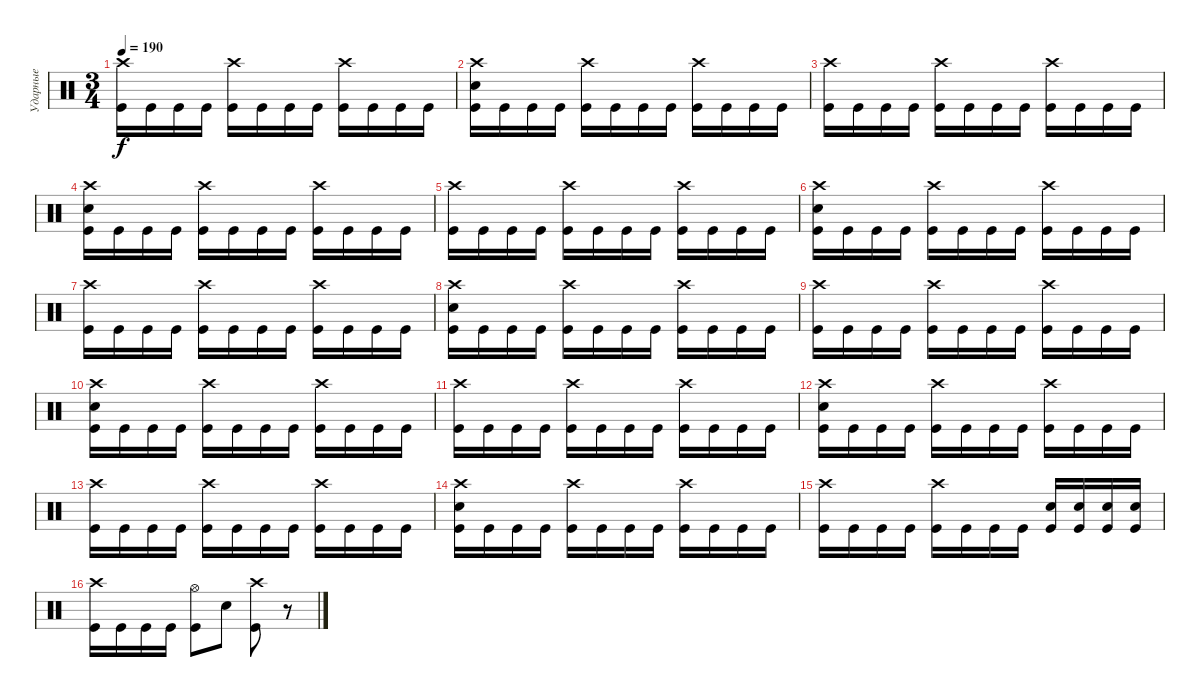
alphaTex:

\track ("Ударные" "Ударные") {instrument percussion}
\staff {score}
\articulation defaults
\ts (3 4)
\tempo 190
\clef neutral
\ks c
("Crash high (hit)" "Kick (hit)").16{dy f} "Kick (hit)".16 "Kick (hit)".16 "Kick (hit)".16 ("Crash high (hit)" "Kick (hit)").16 "Kick (hit)".16 "Kick (hit)".16 "Kick (hit)".16 ("Crash high (hit)" "Kick (hit)").16 "Kick (hit)".16 "Kick (hit)".16 "Kick (hit)".16 |
("Crash high (hit)" "Kick (hit)" "Snare (hit) 2").16 "Kick (hit)".16 "Kick (hit)".16 "Kick (hit)".16 ("Crash high (hit)" "Kick (hit)").16 "Kick (hit)".16 "Kick (hit)".16 "Kick (hit)".16 ("Crash high (hit)" "Kick (hit)").16 "Kick (hit)".16 "Kick (hit)".16 "Kick (hit)".16 |
("Crash high (hit)" "Kick (hit)").16 "Kick (hit)".16 "Kick (hit)".16 "Kick (hit)".16 ("Crash high (hit)" "Kick (hit)").16 "Kick (hit)".16 "Kick (hit)".16 "Kick (hit)".16 ("Crash high (hit)" "Kick (hit)").16 "Kick (hit)".16 "Kick (hit)".16 "Kick (hit)".16 |
("Crash high (hit)" "Kick (hit)" "Snare (hit) 2").16 "Kick (hit)".16 "Kick (hit)".16 "Kick (hit)".16 ("Crash high (hit)" "Kick (hit)").16 "Kick (hit)".16 "Kick (hit)".16 "Kick (hit)".16 ("Crash high (hit)" "Kick (hit)").16 "Kick (hit)".16 "Kick (hit)".16 "Kick (hit)".16 |
("Crash high (hit)" "Kick (hit)").16 "Kick (hit)".16 "Kick (hit)".16 "Kick (hit)".16 ("Crash high (hit)" "Kick (hit)").16 "Kick (hit)".16 "Kick (hit)".16 "Kick (hit)".16 ("Crash high (hit)" "Kick (hit)").16 "Kick (hit)".16 "Kick (hit)".16 "Kick (hit)".16 |
("Crash high (hit)" "Kick (hit)" "Snare (hit) 2").16 "Kick (hit)".16 "Kick (hit)".16 "Kick (hit)".16 ("Crash high (hit)" "Kick (hit)").16 "Kick (hit)".16 "Kick (hit)".16 "Kick (hit)".16 ("Crash high (hit)" "Kick (hit)").16 "Kick (hit)".16 "Kick (hit)".16 "Kick (hit)".16 |
("Crash high (hit)" "Kick (hit)").16 "Kick (hit)".16 "Kick (hit)".16 "Kick (hit)".16 ("Crash high (hit)" "Kick (hit)").16 "Kick (hit)".16 "Kick (hit)".16 "Kick (hit)".16 ("Crash high (hit)" "Kick (hit)").16 "Kick (hit)".16 "Kick (hit)".16 "Kick (hit)".16 |
("Crash high (hit)" "Kick (hit)" "Snare (hit) 2").16 "Kick (hit)".16 "Kick (hit)".16 "Kick (hit)".16 ("Crash high (hit)" "Kick (hit)").16 "Kick (hit)".16 "Kick (hit)".16 "Kick (hit)".16 ("Crash high (hit)" "Kick (hit)").16 "Kick (hit)".16 "Kick (hit)".16 "Kick (hit)".16 |
("Crash high (hit)" "Kick (hit)").16 "Kick (hit)".16 "Kick (hit)".16 "Kick (hit)".16 ("Crash high (hit)" "Kick (hit)").16 "Kick (hit)".16 "Kick (hit)".16 "Kick (hit)".16 ("Crash high (hit)" "Kick (hit)").16 "Kick (hit)".16 "Kick (hit)".16 "Kick (hit)".16 |
("Crash high (hit)" "Kick (hit)" "Snare (hit) 2").16 "Kick (hit)".16 "Kick (hit)".16 "Kick (hit)".16 ("Crash high (hit)" "Kick (hit)").16 "Kick (hit)".16 "Kick (hit)".16 "Kick (hit)".16 ("Crash high (hit)" "Kick (hit)").16 "Kick (hit)".16 "Kick (hit)".16 "Kick (hit)".16 |
("Crash high (hit)" "Kick (hit)").16 "Kick (hit)".16 "Kick (hit)".16 "Kick (hit)".16 ("Crash high (hit)" "Kick (hit)").16 "Kick (hit)".16 "Kick (hit)".16 "Kick (hit)".16 ("Crash high (hit)" "Kick (hit)").16 "Kick (hit)".16 "Kick (hit)".16 "Kick (hit)".16 |
("Crash high (hit)" "Kick (hit)" "Snare (hit) 2").16 "Kick (hit)".16 "Kick (hit)".16 "Kick (hit)".16 ("Crash high (hit)" "Kick (hit)").16 "Kick (hit)".16 "Kick (hit)".16 "Kick (hit)".16 ("Crash high (hit)" "Kick (hit)").16 "Kick (hit)".16 "Kick (hit)".16 "Kick (hit)".16 |
("Crash high (hit)" "Kick (hit)").16 "Kick (hit)".16 "Kick (hit)".16 "Kick (hit)".16 ("Crash high (hit)" "Kick (hit)").16 "Kick (hit)".16 "Kick (hit)".16 "Kick (hit)".16 ("Crash high (hit)" "Kick (hit)").16 "Kick (hit)".16 "Kick (hit)".16 "Kick (hit)".16 |
("Crash high (hit)" "Kick (hit)" "Snare (hit) 2").16 "Kick (hit)".16 "Kick (hit)".16 "Kick (hit)".16 ("Crash high (hit)" "Kick (hit)").16 "Kick (hit)".16 "Kick (hit)".16 "Kick (hit)".16 ("Crash high (hit)" "Kick (hit)").16 "Kick (hit)".16 "Kick (hit)".16 "Kick (hit)".16 |
("Crash high (hit)" "Kick (hit)").16 "Kick (hit)".16 "Kick (hit)".16 "Kick (hit)".16 ("Crash high (hit)" "Kick (hit)").16 "Kick (hit)".16 "Kick (hit)".16 "Kick (hit)".16 ("Snare (hit) 2" "Kick (hit)").16 ("Snare (hit) 2" "Kick (hit)").16 ("Snare (hit) 2" "Kick (hit)").16 ("Snare (hit) 2" "Kick (hit)").16 |
("Crash high (hit)" "Kick (hit)").16 "Kick (hit)".16 "Kick (hit)".16 "Kick (hit)".16 ("Kick (hit)" "Hi-Hat (open)").8 "Snare (hit) 2".8 ("Crash high (hit)" "Kick (hit)").8 r.8
